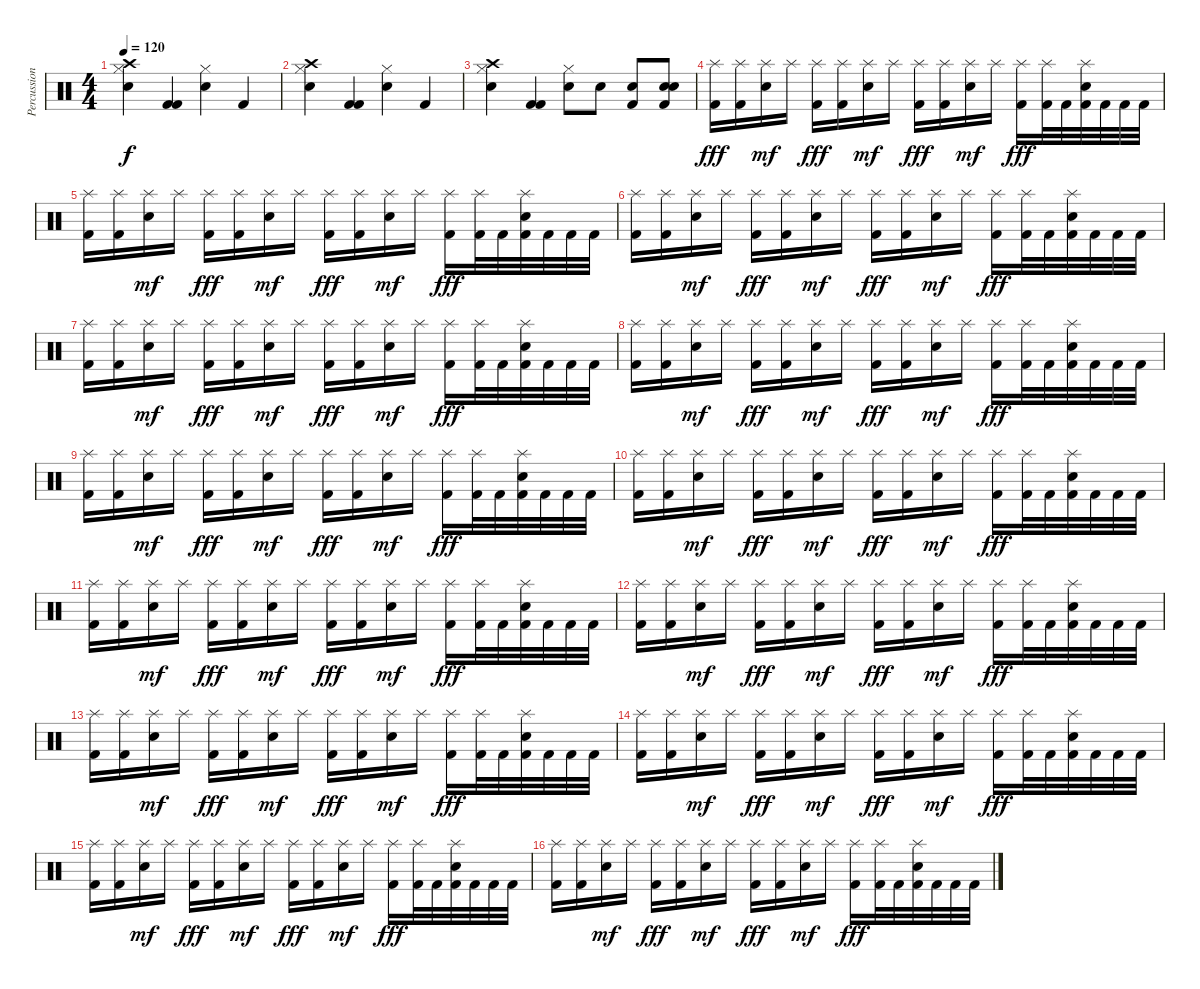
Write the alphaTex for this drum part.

\track ("Percussions" "Percussion") {instrument percussion}
\staff {score}
\articulation defaults
\ts (4 4)
\tempo 120
\clef neutral
\ks c
("Crash high (hit)" "Electric Snare (hit)" "Hi-Hat (closed)").4{dy f} ("Kick (hit) 2" "Kick (hit) 2").4 ("Electric Snare (hit)" "Hi-Hat (closed)").4 "Kick (hit) 2".4 |
("Crash high (hit)" "Electric Snare (hit)" "Hi-Hat (closed)").4 ("Kick (hit) 2" "Kick (hit) 2").4 ("Electric Snare (hit)" "Hi-Hat (closed)").4 "Kick (hit) 2".4 |
("Crash high (hit)" "Electric Snare (hit)" "Hi-Hat (closed)").4 ("Kick (hit) 2" "Kick (hit) 2").4 ("Electric Snare (hit)" "Hi-Hat (closed)").8 "Electric Snare (hit)".8 ("Electric Snare (hit)" "Kick (hit) 2").8 ("Electric Snare (hit)" "Electric Snare (hit)" "Kick (hit) 2").8 |
("Splash (hit)" "Kick (hit) 2").16{dy fff} ("Splash (hit)" "Kick (hit) 2").16 ("Splash (hit)" "Electric Snare (hit)").16{dy mf} "Splash (hit)".16 ("Splash (hit)" "Kick (hit) 2").16{dy fff} ("Splash (hit)" "Kick (hit) 2").16 ("Splash (hit)" "Electric Snare (hit)").16{dy mf} "Splash (hit)".16 ("Splash (hit)" "Kick (hit) 2").16{dy fff} ("Splash (hit)" "Kick (hit) 2").16 ("Splash (hit)" "Electric Snare (hit)").16{dy mf} "Splash (hit)".16 ("Splash (hit)" "Kick (hit) 2").16{dy fff} ("Splash (hit)" "Kick (hit) 2").32 "Kick (hit) 2".32 ("Splash (hit)" "Electric Snare (hit)" "Kick (hit) 2").32 "Kick (hit) 2".32 "Kick (hit) 2".32 "Kick (hit) 2".32 |
("Splash (hit)" "Kick (hit) 2").16 ("Splash (hit)" "Kick (hit) 2").16 ("Splash (hit)" "Electric Snare (hit)").16{dy mf} "Splash (hit)".16 ("Splash (hit)" "Kick (hit) 2").16{dy fff} ("Splash (hit)" "Kick (hit) 2").16 ("Splash (hit)" "Electric Snare (hit)").16{dy mf} "Splash (hit)".16 ("Splash (hit)" "Kick (hit) 2").16{dy fff} ("Splash (hit)" "Kick (hit) 2").16 ("Splash (hit)" "Electric Snare (hit)").16{dy mf} "Splash (hit)".16 ("Splash (hit)" "Kick (hit) 2").16{dy fff} ("Splash (hit)" "Kick (hit) 2").32 "Kick (hit) 2".32 ("Splash (hit)" "Electric Snare (hit)" "Kick (hit) 2").32 "Kick (hit) 2".32 "Kick (hit) 2".32 "Kick (hit) 2".32 |
("Splash (hit)" "Kick (hit) 2").16 ("Splash (hit)" "Kick (hit) 2").16 ("Splash (hit)" "Electric Snare (hit)").16{dy mf} "Splash (hit)".16 ("Splash (hit)" "Kick (hit) 2").16{dy fff} ("Splash (hit)" "Kick (hit) 2").16 ("Splash (hit)" "Electric Snare (hit)").16{dy mf} "Splash (hit)".16 ("Splash (hit)" "Kick (hit) 2").16{dy fff} ("Splash (hit)" "Kick (hit) 2").16 ("Splash (hit)" "Electric Snare (hit)").16{dy mf} "Splash (hit)".16 ("Splash (hit)" "Kick (hit) 2").16{dy fff} ("Splash (hit)" "Kick (hit) 2").32 "Kick (hit) 2".32 ("Splash (hit)" "Electric Snare (hit)" "Kick (hit) 2").32 "Kick (hit) 2".32 "Kick (hit) 2".32 "Kick (hit) 2".32 |
("Splash (hit)" "Kick (hit) 2").16 ("Splash (hit)" "Kick (hit) 2").16 ("Splash (hit)" "Electric Snare (hit)").16{dy mf} "Splash (hit)".16 ("Splash (hit)" "Kick (hit) 2").16{dy fff} ("Splash (hit)" "Kick (hit) 2").16 ("Splash (hit)" "Electric Snare (hit)").16{dy mf} "Splash (hit)".16 ("Splash (hit)" "Kick (hit) 2").16{dy fff} ("Splash (hit)" "Kick (hit) 2").16 ("Splash (hit)" "Electric Snare (hit)").16{dy mf} "Splash (hit)".16 ("Splash (hit)" "Kick (hit) 2").16{dy fff} ("Splash (hit)" "Kick (hit) 2").32 "Kick (hit) 2".32 ("Splash (hit)" "Electric Snare (hit)" "Kick (hit) 2").32 "Kick (hit) 2".32 "Kick (hit) 2".32 "Kick (hit) 2".32 |
("Splash (hit)" "Kick (hit) 2").16 ("Splash (hit)" "Kick (hit) 2").16 ("Splash (hit)" "Electric Snare (hit)").16{dy mf} "Splash (hit)".16 ("Splash (hit)" "Kick (hit) 2").16{dy fff} ("Splash (hit)" "Kick (hit) 2").16 ("Splash (hit)" "Electric Snare (hit)").16{dy mf} "Splash (hit)".16 ("Splash (hit)" "Kick (hit) 2").16{dy fff} ("Splash (hit)" "Kick (hit) 2").16 ("Splash (hit)" "Electric Snare (hit)").16{dy mf} "Splash (hit)".16 ("Splash (hit)" "Kick (hit) 2").16{dy fff} ("Splash (hit)" "Kick (hit) 2").32 "Kick (hit) 2".32 ("Splash (hit)" "Electric Snare (hit)" "Kick (hit) 2").32 "Kick (hit) 2".32 "Kick (hit) 2".32 "Kick (hit) 2".32 |
("Splash (hit)" "Kick (hit) 2").16 ("Splash (hit)" "Kick (hit) 2").16 ("Splash (hit)" "Electric Snare (hit)").16{dy mf} "Splash (hit)".16 ("Splash (hit)" "Kick (hit) 2").16{dy fff} ("Splash (hit)" "Kick (hit) 2").16 ("Splash (hit)" "Electric Snare (hit)").16{dy mf} "Splash (hit)".16 ("Splash (hit)" "Kick (hit) 2").16{dy fff} ("Splash (hit)" "Kick (hit) 2").16 ("Splash (hit)" "Electric Snare (hit)").16{dy mf} "Splash (hit)".16 ("Splash (hit)" "Kick (hit) 2").16{dy fff} ("Splash (hit)" "Kick (hit) 2").32 "Kick (hit) 2".32 ("Splash (hit)" "Electric Snare (hit)" "Kick (hit) 2").32 "Kick (hit) 2".32 "Kick (hit) 2".32 "Kick (hit) 2".32 |
("Splash (hit)" "Kick (hit) 2").16 ("Splash (hit)" "Kick (hit) 2").16 ("Splash (hit)" "Electric Snare (hit)").16{dy mf} "Splash (hit)".16 ("Splash (hit)" "Kick (hit) 2").16{dy fff} ("Splash (hit)" "Kick (hit) 2").16 ("Splash (hit)" "Electric Snare (hit)").16{dy mf} "Splash (hit)".16 ("Splash (hit)" "Kick (hit) 2").16{dy fff} ("Splash (hit)" "Kick (hit) 2").16 ("Splash (hit)" "Electric Snare (hit)").16{dy mf} "Splash (hit)".16 ("Splash (hit)" "Kick (hit) 2").16{dy fff} ("Splash (hit)" "Kick (hit) 2").32 "Kick (hit) 2".32 ("Splash (hit)" "Electric Snare (hit)" "Kick (hit) 2").32 "Kick (hit) 2".32 "Kick (hit) 2".32 "Kick (hit) 2".32 |
("Splash (hit)" "Kick (hit) 2").16 ("Splash (hit)" "Kick (hit) 2").16 ("Splash (hit)" "Electric Snare (hit)").16{dy mf} "Splash (hit)".16 ("Splash (hit)" "Kick (hit) 2").16{dy fff} ("Splash (hit)" "Kick (hit) 2").16 ("Splash (hit)" "Electric Snare (hit)").16{dy mf} "Splash (hit)".16 ("Splash (hit)" "Kick (hit) 2").16{dy fff} ("Splash (hit)" "Kick (hit) 2").16 ("Splash (hit)" "Electric Snare (hit)").16{dy mf} "Splash (hit)".16 ("Splash (hit)" "Kick (hit) 2").16{dy fff} ("Splash (hit)" "Kick (hit) 2").32 "Kick (hit) 2".32 ("Splash (hit)" "Electric Snare (hit)" "Kick (hit) 2").32 "Kick (hit) 2".32 "Kick (hit) 2".32 "Kick (hit) 2".32 |
("Splash (hit)" "Kick (hit) 2").16 ("Splash (hit)" "Kick (hit) 2").16 ("Splash (hit)" "Electric Snare (hit)").16{dy mf} "Splash (hit)".16 ("Splash (hit)" "Kick (hit) 2").16{dy fff} ("Splash (hit)" "Kick (hit) 2").16 ("Splash (hit)" "Electric Snare (hit)").16{dy mf} "Splash (hit)".16 ("Splash (hit)" "Kick (hit) 2").16{dy fff} ("Splash (hit)" "Kick (hit) 2").16 ("Splash (hit)" "Electric Snare (hit)").16{dy mf} "Splash (hit)".16 ("Splash (hit)" "Kick (hit) 2").16{dy fff} ("Splash (hit)" "Kick (hit) 2").32 "Kick (hit) 2".32 ("Splash (hit)" "Electric Snare (hit)" "Kick (hit) 2").32 "Kick (hit) 2".32 "Kick (hit) 2".32 "Kick (hit) 2".32 |
("Splash (hit)" "Kick (hit) 2").16 ("Splash (hit)" "Kick (hit) 2").16 ("Splash (hit)" "Electric Snare (hit)").16{dy mf} "Splash (hit)".16 ("Splash (hit)" "Kick (hit) 2").16{dy fff} ("Splash (hit)" "Kick (hit) 2").16 ("Splash (hit)" "Electric Snare (hit)").16{dy mf} "Splash (hit)".16 ("Splash (hit)" "Kick (hit) 2").16{dy fff} ("Splash (hit)" "Kick (hit) 2").16 ("Splash (hit)" "Electric Snare (hit)").16{dy mf} "Splash (hit)".16 ("Splash (hit)" "Kick (hit) 2").16{dy fff} ("Splash (hit)" "Kick (hit) 2").32 "Kick (hit) 2".32 ("Splash (hit)" "Electric Snare (hit)" "Kick (hit) 2").32 "Kick (hit) 2".32 "Kick (hit) 2".32 "Kick (hit) 2".32 |
("Splash (hit)" "Kick (hit) 2").16 ("Splash (hit)" "Kick (hit) 2").16 ("Splash (hit)" "Electric Snare (hit)").16{dy mf} "Splash (hit)".16 ("Splash (hit)" "Kick (hit) 2").16{dy fff} ("Splash (hit)" "Kick (hit) 2").16 ("Splash (hit)" "Electric Snare (hit)").16{dy mf} "Splash (hit)".16 ("Splash (hit)" "Kick (hit) 2").16{dy fff} ("Splash (hit)" "Kick (hit) 2").16 ("Splash (hit)" "Electric Snare (hit)").16{dy mf} "Splash (hit)".16 ("Splash (hit)" "Kick (hit) 2").16{dy fff} ("Splash (hit)" "Kick (hit) 2").32 "Kick (hit) 2".32 ("Splash (hit)" "Electric Snare (hit)" "Kick (hit) 2").32 "Kick (hit) 2".32 "Kick (hit) 2".32 "Kick (hit) 2".32 |
("Splash (hit)" "Kick (hit) 2").16 ("Splash (hit)" "Kick (hit) 2").16 ("Splash (hit)" "Electric Snare (hit)").16{dy mf} "Splash (hit)".16 ("Splash (hit)" "Kick (hit) 2").16{dy fff} ("Splash (hit)" "Kick (hit) 2").16 ("Splash (hit)" "Electric Snare (hit)").16{dy mf} "Splash (hit)".16 ("Splash (hit)" "Kick (hit) 2").16{dy fff} ("Splash (hit)" "Kick (hit) 2").16 ("Splash (hit)" "Electric Snare (hit)").16{dy mf} "Splash (hit)".16 ("Splash (hit)" "Kick (hit) 2").16{dy fff} ("Splash (hit)" "Kick (hit) 2").32 "Kick (hit) 2".32 ("Splash (hit)" "Electric Snare (hit)" "Kick (hit) 2").32 "Kick (hit) 2".32 "Kick (hit) 2".32 "Kick (hit) 2".32 |
("Splash (hit)" "Kick (hit) 2").16 ("Splash (hit)" "Kick (hit) 2").16 ("Splash (hit)" "Electric Snare (hit)").16{dy mf} "Splash (hit)".16 ("Splash (hit)" "Kick (hit) 2").16{dy fff} ("Splash (hit)" "Kick (hit) 2").16 ("Splash (hit)" "Electric Snare (hit)").16{dy mf} "Splash (hit)".16 ("Splash (hit)" "Kick (hit) 2").16{dy fff} ("Splash (hit)" "Kick (hit) 2").16 ("Splash (hit)" "Electric Snare (hit)").16{dy mf} "Splash (hit)".16 ("Splash (hit)" "Kick (hit) 2").16{dy fff} ("Splash (hit)" "Kick (hit) 2").32 "Kick (hit) 2".32 ("Splash (hit)" "Electric Snare (hit)" "Kick (hit) 2").32 "Kick (hit) 2".32 "Kick (hit) 2".32 "Kick (hit) 2".32
